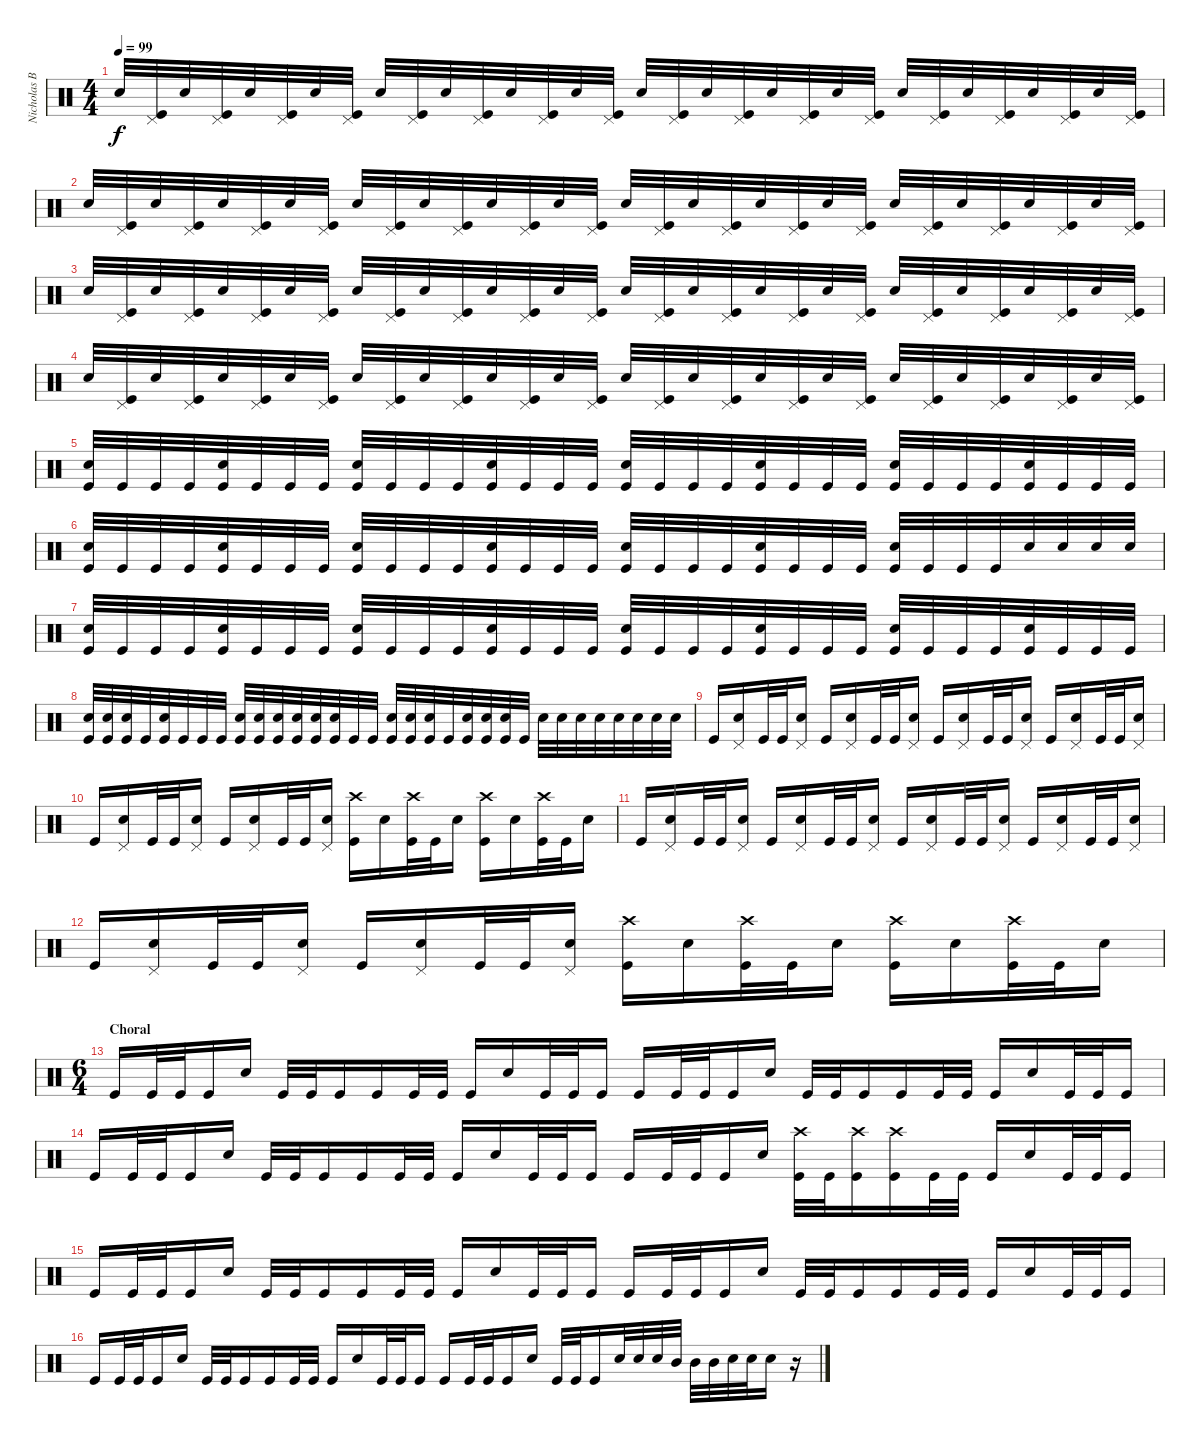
\track ("Nicholas Barker" "Nicholas B") {instrument percussion}
\staff {score}
\articulation defaults
\ts (4 4)
\tempo 99
\clef neutral
\ks c "Snare (hit) 2".32{dy f}
("Pedal Hi-Hat (hit)" "Kick (hit)").32 "Snare (hit) 2".32 ("Pedal Hi-Hat (hit)" "Kick (hit)").32 "Snare (hit) 2".32 ("Pedal Hi-Hat (hit)" "Kick (hit)").32 "Snare (hit) 2".32 ("Pedal Hi-Hat (hit)" "Kick (hit)").32 "Snare (hit) 2".32 ("Pedal Hi-Hat (hit)" "Kick (hit)").32 "Snare (hit) 2".32 ("Pedal Hi-Hat (hit)" "Kick (hit)").32 "Snare (hit) 2".32 ("Pedal Hi-Hat (hit)" "Kick (hit)").32 "Snare (hit) 2".32 ("Pedal Hi-Hat (hit)" "Kick (hit)").32 "Snare (hit) 2".32 ("Pedal Hi-Hat (hit)" "Kick (hit)").32 "Snare (hit) 2".32 ("Pedal Hi-Hat (hit)" "Kick (hit)").32 "Snare (hit) 2".32 ("Pedal Hi-Hat (hit)" "Kick (hit)").32 "Snare (hit) 2".32 ("Pedal Hi-Hat (hit)" "Kick (hit)").32 "Snare (hit) 2".32 ("Pedal Hi-Hat (hit)" "Kick (hit)").32 "Snare (hit) 2".32 ("Pedal Hi-Hat (hit)" "Kick (hit)").32 "Snare (hit) 2".32 ("Pedal Hi-Hat (hit)" "Kick (hit)").32 "Snare (hit) 2".32 ("Pedal Hi-Hat (hit)" "Kick (hit)").32 |
"Snare (hit) 2".32 ("Pedal Hi-Hat (hit)" "Kick (hit)").32 "Snare (hit) 2".32 ("Pedal Hi-Hat (hit)" "Kick (hit)").32 "Snare (hit) 2".32 ("Pedal Hi-Hat (hit)" "Kick (hit)").32 "Snare (hit) 2".32 ("Pedal Hi-Hat (hit)" "Kick (hit)").32 "Snare (hit) 2".32 ("Pedal Hi-Hat (hit)" "Kick (hit)").32 "Snare (hit) 2".32 ("Pedal Hi-Hat (hit)" "Kick (hit)").32 "Snare (hit) 2".32 ("Pedal Hi-Hat (hit)" "Kick (hit)").32 "Snare (hit) 2".32 ("Pedal Hi-Hat (hit)" "Kick (hit)").32 "Snare (hit) 2".32 ("Pedal Hi-Hat (hit)" "Kick (hit)").32 "Snare (hit) 2".32 ("Pedal Hi-Hat (hit)" "Kick (hit)").32 "Snare (hit) 2".32 ("Pedal Hi-Hat (hit)" "Kick (hit)").32 "Snare (hit) 2".32 ("Pedal Hi-Hat (hit)" "Kick (hit)").32 "Snare (hit) 2".32 ("Pedal Hi-Hat (hit)" "Kick (hit)").32 "Snare (hit) 2".32 ("Pedal Hi-Hat (hit)" "Kick (hit)").32 "Snare (hit) 2".32 ("Pedal Hi-Hat (hit)" "Kick (hit)").32 "Snare (hit) 2".32 ("Pedal Hi-Hat (hit)" "Kick (hit)").32 |
"Snare (hit) 2".32 ("Pedal Hi-Hat (hit)" "Kick (hit)").32 "Snare (hit) 2".32 ("Pedal Hi-Hat (hit)" "Kick (hit)").32 "Snare (hit) 2".32 ("Pedal Hi-Hat (hit)" "Kick (hit)").32 "Snare (hit) 2".32 ("Pedal Hi-Hat (hit)" "Kick (hit)").32 "Snare (hit) 2".32 ("Pedal Hi-Hat (hit)" "Kick (hit)").32 "Snare (hit) 2".32 ("Pedal Hi-Hat (hit)" "Kick (hit)").32 "Snare (hit) 2".32 ("Pedal Hi-Hat (hit)" "Kick (hit)").32 "Snare (hit) 2".32 ("Pedal Hi-Hat (hit)" "Kick (hit)").32 "Snare (hit) 2".32 ("Pedal Hi-Hat (hit)" "Kick (hit)").32 "Snare (hit) 2".32 ("Pedal Hi-Hat (hit)" "Kick (hit)").32 "Snare (hit) 2".32 ("Pedal Hi-Hat (hit)" "Kick (hit)").32 "Snare (hit) 2".32 ("Pedal Hi-Hat (hit)" "Kick (hit)").32 "Snare (hit) 2".32 ("Pedal Hi-Hat (hit)" "Kick (hit)").32 "Snare (hit) 2".32 ("Pedal Hi-Hat (hit)" "Kick (hit)").32 "Snare (hit) 2".32 ("Pedal Hi-Hat (hit)" "Kick (hit)").32 "Snare (hit) 2".32 ("Pedal Hi-Hat (hit)" "Kick (hit)").32 |
"Snare (hit) 2".32 ("Pedal Hi-Hat (hit)" "Kick (hit)").32 "Snare (hit) 2".32 ("Pedal Hi-Hat (hit)" "Kick (hit)").32 "Snare (hit) 2".32 ("Pedal Hi-Hat (hit)" "Kick (hit)").32 "Snare (hit) 2".32 ("Pedal Hi-Hat (hit)" "Kick (hit)").32 "Snare (hit) 2".32 ("Pedal Hi-Hat (hit)" "Kick (hit)").32 "Snare (hit) 2".32 ("Pedal Hi-Hat (hit)" "Kick (hit)").32 "Snare (hit) 2".32 ("Pedal Hi-Hat (hit)" "Kick (hit)").32 "Snare (hit) 2".32 ("Pedal Hi-Hat (hit)" "Kick (hit)").32 "Snare (hit) 2".32 ("Pedal Hi-Hat (hit)" "Kick (hit)").32 "Snare (hit) 2".32 ("Pedal Hi-Hat (hit)" "Kick (hit)").32 "Snare (hit) 2".32 ("Pedal Hi-Hat (hit)" "Kick (hit)").32 "Snare (hit) 2".32 ("Pedal Hi-Hat (hit)" "Kick (hit)").32 "Snare (hit) 2".32 ("Pedal Hi-Hat (hit)" "Kick (hit)").32 "Snare (hit) 2".32 ("Pedal Hi-Hat (hit)" "Kick (hit)").32 "Snare (hit) 2".32 ("Pedal Hi-Hat (hit)" "Kick (hit)").32 "Snare (hit) 2".32 ("Pedal Hi-Hat (hit)" "Kick (hit)").32 |
("Snare (hit) 2" "Kick (hit)").32 "Kick (hit)".32 "Kick (hit)".32 "Kick (hit)".32 ("Snare (hit) 2" "Kick (hit)").32 "Kick (hit)".32 "Kick (hit)".32 "Kick (hit)".32 ("Snare (hit) 2" "Kick (hit)").32 "Kick (hit)".32 "Kick (hit)".32 "Kick (hit)".32 ("Snare (hit) 2" "Kick (hit)").32 "Kick (hit)".32 "Kick (hit)".32 "Kick (hit)".32 ("Snare (hit) 2" "Kick (hit)").32 "Kick (hit)".32 "Kick (hit)".32 "Kick (hit)".32 ("Snare (hit) 2" "Kick (hit)").32 "Kick (hit)".32 "Kick (hit)".32 "Kick (hit)".32 ("Snare (hit) 2" "Kick (hit)").32 "Kick (hit)".32 "Kick (hit)".32 "Kick (hit)".32 ("Snare (hit) 2" "Kick (hit)").32 "Kick (hit)".32 "Kick (hit)".32 "Kick (hit)".32 |
("Snare (hit) 2" "Kick (hit)").32 "Kick (hit)".32 "Kick (hit)".32 "Kick (hit)".32 ("Snare (hit) 2" "Kick (hit)").32 "Kick (hit)".32 "Kick (hit)".32 "Kick (hit)".32 ("Snare (hit) 2" "Kick (hit)").32 "Kick (hit)".32 "Kick (hit)".32 "Kick (hit)".32 ("Snare (hit) 2" "Kick (hit)").32 "Kick (hit)".32 "Kick (hit)".32 "Kick (hit)".32 ("Snare (hit) 2" "Kick (hit)").32 "Kick (hit)".32 "Kick (hit)".32 "Kick (hit)".32 ("Snare (hit) 2" "Kick (hit)").32 "Kick (hit)".32 "Kick (hit)".32 "Kick (hit)".32 ("Snare (hit) 2" "Kick (hit)").32 "Kick (hit)".32 "Kick (hit)".32 "Kick (hit)".32 "Snare (hit) 2".32 "Snare (hit) 2".32 "Snare (hit) 2".32 "Snare (hit) 2".32 |
("Snare (hit) 2" "Kick (hit)").32 "Kick (hit)".32 "Kick (hit)".32 "Kick (hit)".32 ("Snare (hit) 2" "Kick (hit)").32 "Kick (hit)".32 "Kick (hit)".32 "Kick (hit)".32 ("Snare (hit) 2" "Kick (hit)").32 "Kick (hit)".32 "Kick (hit)".32 "Kick (hit)".32 ("Snare (hit) 2" "Kick (hit)").32 "Kick (hit)".32 "Kick (hit)".32 "Kick (hit)".32 ("Snare (hit) 2" "Kick (hit)").32 "Kick (hit)".32 "Kick (hit)".32 "Kick (hit)".32 ("Snare (hit) 2" "Kick (hit)").32 "Kick (hit)".32 "Kick (hit)".32 "Kick (hit)".32 ("Snare (hit) 2" "Kick (hit)").32 "Kick (hit)".32 "Kick (hit)".32 "Kick (hit)".32 ("Snare (hit) 2" "Kick (hit)").32 "Kick (hit)".32 "Kick (hit)".32 "Kick (hit)".32 |
("Snare (hit) 2" "Kick (hit)").32 ("Snare (hit) 2" "Kick (hit)").32 ("Snare (hit) 2" "Kick (hit)").32 "Kick (hit)".32 ("Snare (hit) 2" "Kick (hit)").32 "Kick (hit)".32 "Kick (hit)".32 "Kick (hit)".32 ("Snare (hit) 2" "Kick (hit)").32 ("Snare (hit) 2" "Kick (hit)").32 ("Snare (hit) 2" "Kick (hit)").32 ("Snare (hit) 2" "Kick (hit)").32 ("Snare (hit) 2" "Kick (hit)").32 ("Snare (hit) 2" "Kick (hit)").32 "Kick (hit)".32 "Kick (hit)".32 ("Snare (hit) 2" "Kick (hit)").32 ("Snare (hit) 2" "Kick (hit)").32 ("Snare (hit) 2" "Kick (hit)").32 "Kick (hit)".32 ("Snare (hit) 2" "Kick (hit)").32 ("Snare (hit) 2" "Kick (hit)").32 ("Snare (hit) 2" "Kick (hit)").32 "Kick (hit)".32 "Snare (hit) 2".32 "Snare (hit) 2".32 "Snare (hit) 2".32 "Snare (hit) 2".32 "Snare (hit) 2".32 "Snare (hit) 2".32 "Snare (hit) 2".32 "Snare (hit) 2".32 |
"Kick (hit)".16 ("Pedal Hi-Hat (hit)" "Snare (hit) 2").16 "Kick (hit)".32 "Kick (hit)".32 ("Pedal Hi-Hat (hit)" "Snare (hit) 2").16 "Kick (hit)".16 ("Pedal Hi-Hat (hit)" "Snare (hit) 2").16 "Kick (hit)".32 "Kick (hit)".32 ("Pedal Hi-Hat (hit)" "Snare (hit) 2").16 "Kick (hit)".16 ("Pedal Hi-Hat (hit)" "Snare (hit) 2").16 "Kick (hit)".32 "Kick (hit)".32 ("Pedal Hi-Hat (hit)" "Snare (hit) 2").16 "Kick (hit)".16 ("Pedal Hi-Hat (hit)" "Snare (hit) 2").16 "Kick (hit)".32 "Kick (hit)".32 ("Pedal Hi-Hat (hit)" "Snare (hit) 2").16 |
"Kick (hit)".16 ("Pedal Hi-Hat (hit)" "Snare (hit) 2").16 "Kick (hit)".32 "Kick (hit)".32 ("Pedal Hi-Hat (hit)" "Snare (hit) 2").16 "Kick (hit)".16 ("Pedal Hi-Hat (hit)" "Snare (hit) 2").16 "Kick (hit)".32 "Kick (hit)".32 ("Pedal Hi-Hat (hit)" "Snare (hit) 2").16 ("Crash high (hit)" "Kick (hit)").16 "Snare (hit) 2".16 ("Crash high (hit)" "Kick (hit)").32 "Kick (hit)".32 "Snare (hit) 2".16 ("Crash high (hit)" "Kick (hit)").16 "Snare (hit) 2".16 ("Crash high (hit)" "Kick (hit)").32 "Kick (hit)".32 "Snare (hit) 2".16 |
"Kick (hit)".16 ("Pedal Hi-Hat (hit)" "Snare (hit) 2").16 "Kick (hit)".32 "Kick (hit)".32 ("Pedal Hi-Hat (hit)" "Snare (hit) 2").16 "Kick (hit)".16 ("Pedal Hi-Hat (hit)" "Snare (hit) 2").16 "Kick (hit)".32 "Kick (hit)".32 ("Pedal Hi-Hat (hit)" "Snare (hit) 2").16 "Kick (hit)".16 ("Pedal Hi-Hat (hit)" "Snare (hit) 2").16 "Kick (hit)".32 "Kick (hit)".32 ("Pedal Hi-Hat (hit)" "Snare (hit) 2").16 "Kick (hit)".16 ("Pedal Hi-Hat (hit)" "Snare (hit) 2").16 "Kick (hit)".32 "Kick (hit)".32 ("Pedal Hi-Hat (hit)" "Snare (hit) 2").16 |
"Kick (hit)".16 ("Pedal Hi-Hat (hit)" "Snare (hit) 2").16 "Kick (hit)".32 "Kick (hit)".32 ("Pedal Hi-Hat (hit)" "Snare (hit) 2").16 "Kick (hit)".16 ("Pedal Hi-Hat (hit)" "Snare (hit) 2").16 "Kick (hit)".32 "Kick (hit)".32 ("Pedal Hi-Hat (hit)" "Snare (hit) 2").16 ("Crash high (hit)" "Kick (hit)").16 "Snare (hit) 2".16 ("Crash high (hit)" "Kick (hit)").32 "Kick (hit)".32 "Snare (hit) 2".16 ("Crash high (hit)" "Kick (hit)").16 "Snare (hit) 2".16 ("Crash high (hit)" "Kick (hit)").32 "Kick (hit)".32 "Snare (hit) 2".16 |
\ts (6 4)
\section ("" "Choral")
"Kick (hit)".16 "Kick (hit)".32 "Kick (hit)".32 "Kick (hit)".16 "Snare (hit) 2".16 "Kick (hit)".32 "Kick (hit)".32 "Kick (hit)".16 "Kick (hit)".16 "Kick (hit)".32 "Kick (hit)".32 "Kick (hit)".16 "Snare (hit) 2".16 "Kick (hit)".32 "Kick (hit)".32 "Kick (hit)".16 "Kick (hit)".16 "Kick (hit)".32 "Kick (hit)".32 "Kick (hit)".16 "Snare (hit) 2".16 "Kick (hit)".32 "Kick (hit)".32 "Kick (hit)".16 "Kick (hit)".16 "Kick (hit)".32 "Kick (hit)".32 "Kick (hit)".16 "Snare (hit) 2".16 "Kick (hit)".32 "Kick (hit)".32 "Kick (hit)".16 |
"Kick (hit)".16 "Kick (hit)".32 "Kick (hit)".32 "Kick (hit)".16 "Snare (hit) 2".16 "Kick (hit)".32 "Kick (hit)".32 "Kick (hit)".16 "Kick (hit)".16 "Kick (hit)".32 "Kick (hit)".32 "Kick (hit)".16 "Snare (hit) 2".16 "Kick (hit)".32 "Kick (hit)".32 "Kick (hit)".16 "Kick (hit)".16 "Kick (hit)".32 "Kick (hit)".32 "Kick (hit)".16 "Snare (hit) 2".16 ("Crash high (hit)" "Kick (hit)").32 "Kick (hit)".32 ("Crash high (hit)" "Kick (hit)").16 ("Crash high (hit)" "Kick (hit)").16 "Kick (hit)".32 "Kick (hit)".32 "Kick (hit)".16 "Snare (hit) 2".16 "Kick (hit)".32 "Kick (hit)".32 "Kick (hit)".16 |
"Kick (hit)".16 "Kick (hit)".32 "Kick (hit)".32 "Kick (hit)".16 "Snare (hit) 2".16 "Kick (hit)".32 "Kick (hit)".32 "Kick (hit)".16 "Kick (hit)".16 "Kick (hit)".32 "Kick (hit)".32 "Kick (hit)".16 "Snare (hit) 2".16 "Kick (hit)".32 "Kick (hit)".32 "Kick (hit)".16 "Kick (hit)".16 "Kick (hit)".32 "Kick (hit)".32 "Kick (hit)".16 "Snare (hit) 2".16 "Kick (hit)".32 "Kick (hit)".32 "Kick (hit)".16 "Kick (hit)".16 "Kick (hit)".32 "Kick (hit)".32 "Kick (hit)".16 "Snare (hit) 2".16 "Kick (hit)".32 "Kick (hit)".32 "Kick (hit)".16 |
"Kick (hit)".16 "Kick (hit)".32 "Kick (hit)".32 "Kick (hit)".16 "Snare (hit) 2".16 "Kick (hit)".32 "Kick (hit)".32 "Kick (hit)".16 "Kick (hit)".16 "Kick (hit)".32 "Kick (hit)".32 "Kick (hit)".16 "Snare (hit) 2".16 "Kick (hit)".32 "Kick (hit)".32 "Kick (hit)".16 "Kick (hit)".16 "Kick (hit)".32 "Kick (hit)".32 "Kick (hit)".16 "Snare (hit) 2".16 "Kick (hit)".32 "Kick (hit)".32 "Kick (hit)".16 "Electric Snare (hit)".32 "Electric Snare (hit)".32 "Electric Snare (hit)".32 "Mid Tom (hit)".32 "Mid Tom (hit)".32 "Mid Tom (hit)".32 "Electric Snare (hit)".32 "Electric Snare (hit)".32 "Electric Snare (hit)".16 r.16
